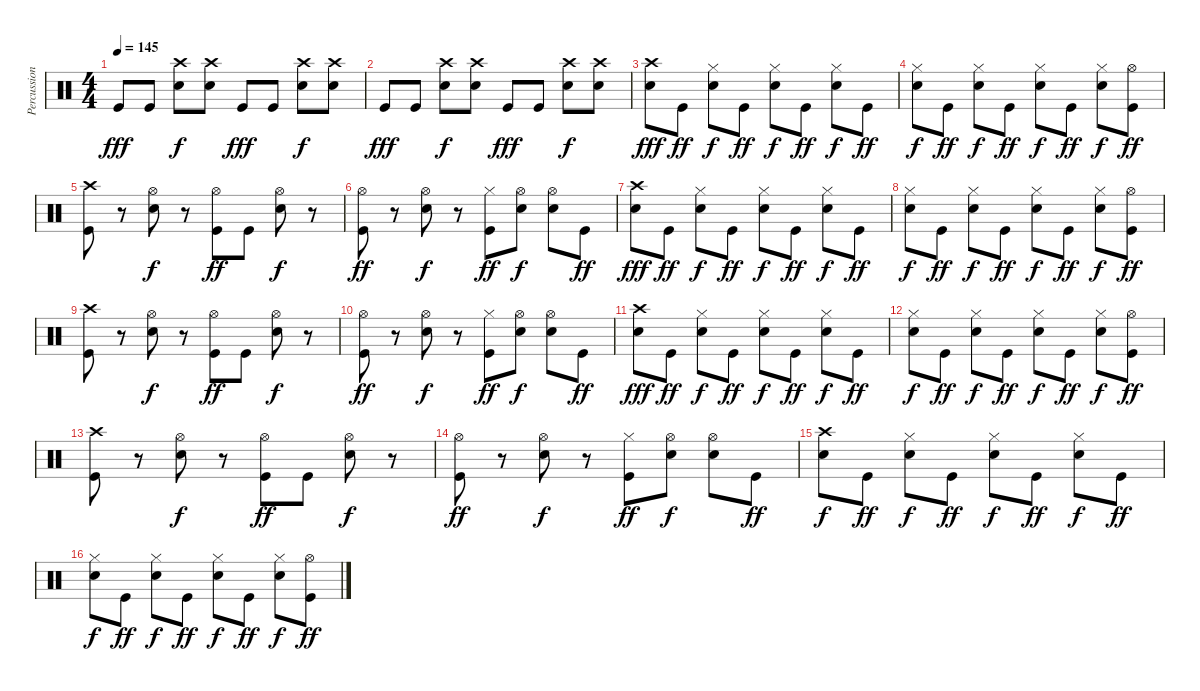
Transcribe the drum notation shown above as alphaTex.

\track ("Percussion" "Percussion") {instrument percussion}
\staff {score}
\articulation defaults
\ts (4 4)
\tempo 145
\clef neutral
\ks c "Kick (hit)".8{dy fff} "Kick (hit)".8
("Crash high (hit)" "Snare (hit) 2").8{dy f} ("Crash high (hit)" "Snare (hit) 2").8 "Kick (hit)".8{dy fff} "Kick (hit)".8 ("Crash high (hit)" "Snare (hit) 2").8{dy f} ("Crash high (hit)" "Snare (hit) 2").8 |
"Kick (hit)".8{dy fff} "Kick (hit)".8 ("Crash high (hit)" "Snare (hit) 2").8{dy f} ("Crash high (hit)" "Snare (hit) 2").8 "Kick (hit)".8{dy fff} "Kick (hit)".8 ("Crash high (hit)" "Snare (hit) 2").8{dy f} ("Crash high (hit)" "Snare (hit) 2").8 |
("Crash high (hit)" "Snare (hit) 2").8{dy fff} "Kick (hit)".8{dy ff} ("Hi-Hat (closed)" "Snare (hit) 2").8{dy f} "Kick (hit)".8{dy ff} ("Hi-Hat (closed)" "Snare (hit) 2").8{dy f} "Kick (hit)".8{dy ff} ("Hi-Hat (closed)" "Snare (hit) 2").8{dy f} "Kick (hit)".8{dy ff} |
("Hi-Hat (closed)" "Snare (hit) 2").8{dy f} "Kick (hit)".8{dy ff} ("Hi-Hat (closed)" "Snare (hit) 2").8{dy f} "Kick (hit)".8{dy ff} ("Hi-Hat (closed)" "Snare (hit) 2").8{dy f} "Kick (hit)".8{dy ff} ("Hi-Hat (closed)" "Snare (hit) 2").8{dy f} ("Hi-Hat (open)" "Kick (hit)").8{dy ff} |
("Crash high (hit)" "Kick (hit)").8 r.8 ("Hi-Hat (open)" "Snare (hit) 2").8{dy f} r.8 ("Hi-Hat (open)" "Kick (hit)").8{dy ff} "Kick (hit)".8 ("Hi-Hat (open)" "Snare (hit) 2").8{dy f} r.8 |
("Hi-Hat (open)" "Kick (hit)").8{dy ff} r.8 ("Hi-Hat (open)" "Snare (hit) 2").8{dy f} r.8 ("Hi-Hat (closed)" "Kick (hit)").8{dy ff} ("Hi-Hat (open)" "Snare (hit) 2").8{dy f} ("Hi-Hat (open)" "Snare (hit) 2").8 "Kick (hit)".8{dy ff} |
("Crash high (hit)" "Snare (hit) 2").8{dy fff} "Kick (hit)".8{dy ff} ("Hi-Hat (closed)" "Snare (hit) 2").8{dy f} "Kick (hit)".8{dy ff} ("Hi-Hat (closed)" "Snare (hit) 2").8{dy f} "Kick (hit)".8{dy ff} ("Hi-Hat (closed)" "Snare (hit) 2").8{dy f} "Kick (hit)".8{dy ff} |
("Hi-Hat (closed)" "Snare (hit) 2").8{dy f} "Kick (hit)".8{dy ff} ("Hi-Hat (closed)" "Snare (hit) 2").8{dy f} "Kick (hit)".8{dy ff} ("Hi-Hat (closed)" "Snare (hit) 2").8{dy f} "Kick (hit)".8{dy ff} ("Hi-Hat (closed)" "Snare (hit) 2").8{dy f} ("Hi-Hat (open)" "Kick (hit)").8{dy ff} |
("Crash high (hit)" "Kick (hit)").8 r.8 ("Hi-Hat (open)" "Snare (hit) 2").8{dy f} r.8 ("Hi-Hat (open)" "Kick (hit)").8{dy ff} "Kick (hit)".8 ("Hi-Hat (open)" "Snare (hit) 2").8{dy f} r.8 |
("Hi-Hat (open)" "Kick (hit)").8{dy ff} r.8 ("Hi-Hat (open)" "Snare (hit) 2").8{dy f} r.8 ("Hi-Hat (closed)" "Kick (hit)").8{dy ff} ("Hi-Hat (open)" "Snare (hit) 2").8{dy f} ("Hi-Hat (open)" "Snare (hit) 2").8 "Kick (hit)".8{dy ff} |
("Crash high (hit)" "Snare (hit) 2").8{dy fff} "Kick (hit)".8{dy ff} ("Hi-Hat (closed)" "Snare (hit) 2").8{dy f} "Kick (hit)".8{dy ff} ("Hi-Hat (closed)" "Snare (hit) 2").8{dy f} "Kick (hit)".8{dy ff} ("Hi-Hat (closed)" "Snare (hit) 2").8{dy f} "Kick (hit)".8{dy ff} |
("Hi-Hat (closed)" "Snare (hit) 2").8{dy f} "Kick (hit)".8{dy ff} ("Hi-Hat (closed)" "Snare (hit) 2").8{dy f} "Kick (hit)".8{dy ff} ("Hi-Hat (closed)" "Snare (hit) 2").8{dy f} "Kick (hit)".8{dy ff} ("Hi-Hat (closed)" "Snare (hit) 2").8{dy f} ("Hi-Hat (open)" "Kick (hit)").8{dy ff} |
("Crash high (hit)" "Kick (hit)").8 r.8 ("Hi-Hat (open)" "Snare (hit) 2").8{dy f} r.8 ("Hi-Hat (open)" "Kick (hit)").8{dy ff} "Kick (hit)".8 ("Hi-Hat (open)" "Snare (hit) 2").8{dy f} r.8 |
("Hi-Hat (open)" "Kick (hit)").8{dy ff} r.8 ("Hi-Hat (open)" "Snare (hit) 2").8{dy f} r.8 ("Hi-Hat (closed)" "Kick (hit)").8{dy ff} ("Hi-Hat (open)" "Snare (hit) 2").8{dy f} ("Hi-Hat (open)" "Snare (hit) 2").8 "Kick (hit)".8{dy ff} |
("Crash high (hit)" "Snare (hit) 2").8{dy f} "Kick (hit)".8{dy ff} ("Hi-Hat (closed)" "Snare (hit) 2").8{dy f} "Kick (hit)".8{dy ff} ("Hi-Hat (closed)" "Snare (hit) 2").8{dy f} "Kick (hit)".8{dy ff} ("Hi-Hat (closed)" "Snare (hit) 2").8{dy f} "Kick (hit)".8{dy ff} |
("Hi-Hat (closed)" "Snare (hit) 2").8{dy f} "Kick (hit)".8{dy ff} ("Hi-Hat (closed)" "Snare (hit) 2").8{dy f} "Kick (hit)".8{dy ff} ("Hi-Hat (closed)" "Snare (hit) 2").8{dy f} "Kick (hit)".8{dy ff} ("Hi-Hat (closed)" "Snare (hit) 2").8{dy f} ("Hi-Hat (open)" "Kick (hit)").8{dy ff}
